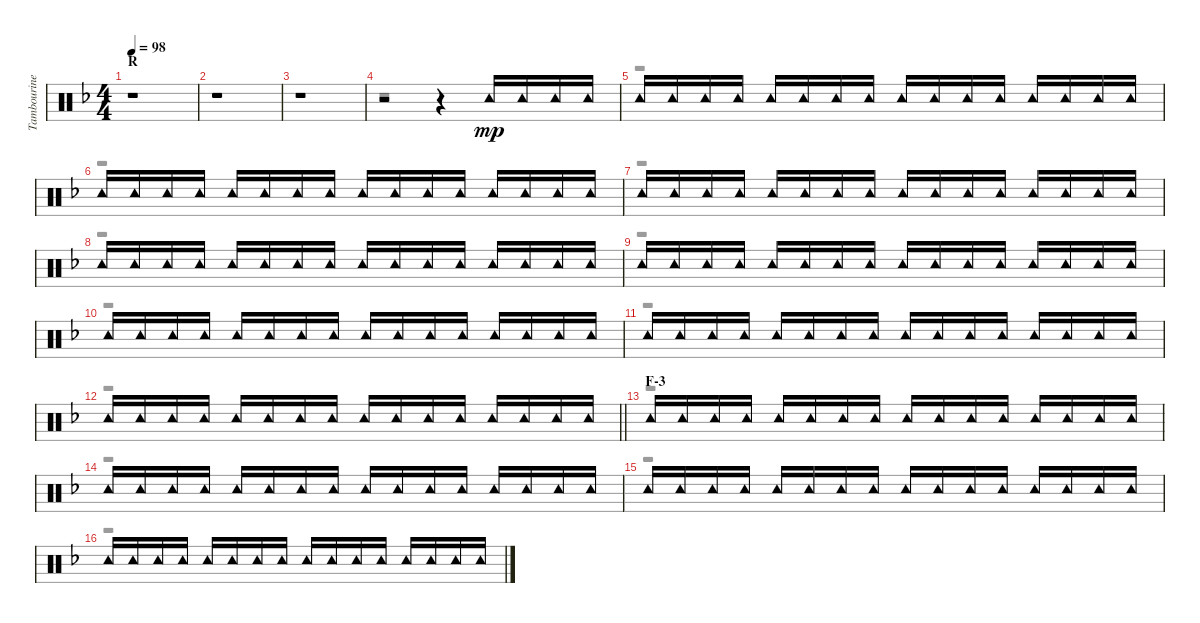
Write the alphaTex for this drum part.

\track ("Tambourine" "Tambourine") {instrument percussion}
\staff {score}
\articulation defaults
\voice
\ts (4 4)
\section ("" "R")
\tempo 98
\clef neutral
\ks f
r.1{dy mp} |
r.1 |
r.1 |
r.2 r.4 "Tambourine (hit)".16 "Tambourine (hit)".16 "Tambourine (hit)".16 "Tambourine (hit)".16 |
"Tambourine (hit)".16 "Tambourine (hit)".16 "Tambourine (hit)".16 "Tambourine (hit)".16 "Tambourine (hit)".16 "Tambourine (hit)".16 "Tambourine (hit)".16 "Tambourine (hit)".16 "Tambourine (hit)".16 "Tambourine (hit)".16 "Tambourine (hit)".16 "Tambourine (hit)".16 "Tambourine (hit)".16 "Tambourine (hit)".16 "Tambourine (hit)".16 "Tambourine (hit)".16 |
"Tambourine (hit)".16 "Tambourine (hit)".16 "Tambourine (hit)".16 "Tambourine (hit)".16 "Tambourine (hit)".16 "Tambourine (hit)".16 "Tambourine (hit)".16 "Tambourine (hit)".16 "Tambourine (hit)".16 "Tambourine (hit)".16 "Tambourine (hit)".16 "Tambourine (hit)".16 "Tambourine (hit)".16 "Tambourine (hit)".16 "Tambourine (hit)".16 "Tambourine (hit)".16 |
"Tambourine (hit)".16 "Tambourine (hit)".16 "Tambourine (hit)".16 "Tambourine (hit)".16 "Tambourine (hit)".16 "Tambourine (hit)".16 "Tambourine (hit)".16 "Tambourine (hit)".16 "Tambourine (hit)".16 "Tambourine (hit)".16 "Tambourine (hit)".16 "Tambourine (hit)".16 "Tambourine (hit)".16 "Tambourine (hit)".16 "Tambourine (hit)".16 "Tambourine (hit)".16 |
"Tambourine (hit)".16 "Tambourine (hit)".16 "Tambourine (hit)".16 "Tambourine (hit)".16 "Tambourine (hit)".16 "Tambourine (hit)".16 "Tambourine (hit)".16 "Tambourine (hit)".16 "Tambourine (hit)".16 "Tambourine (hit)".16 "Tambourine (hit)".16 "Tambourine (hit)".16 "Tambourine (hit)".16 "Tambourine (hit)".16 "Tambourine (hit)".16 "Tambourine (hit)".16 |
"Tambourine (hit)".16 "Tambourine (hit)".16 "Tambourine (hit)".16 "Tambourine (hit)".16 "Tambourine (hit)".16 "Tambourine (hit)".16 "Tambourine (hit)".16 "Tambourine (hit)".16 "Tambourine (hit)".16 "Tambourine (hit)".16 "Tambourine (hit)".16 "Tambourine (hit)".16 "Tambourine (hit)".16 "Tambourine (hit)".16 "Tambourine (hit)".16 "Tambourine (hit)".16 |
"Tambourine (hit)".16 "Tambourine (hit)".16 "Tambourine (hit)".16 "Tambourine (hit)".16 "Tambourine (hit)".16 "Tambourine (hit)".16 "Tambourine (hit)".16 "Tambourine (hit)".16 "Tambourine (hit)".16 "Tambourine (hit)".16 "Tambourine (hit)".16 "Tambourine (hit)".16 "Tambourine (hit)".16 "Tambourine (hit)".16 "Tambourine (hit)".16 "Tambourine (hit)".16 |
"Tambourine (hit)".16 "Tambourine (hit)".16 "Tambourine (hit)".16 "Tambourine (hit)".16 "Tambourine (hit)".16 "Tambourine (hit)".16 "Tambourine (hit)".16 "Tambourine (hit)".16 "Tambourine (hit)".16 "Tambourine (hit)".16 "Tambourine (hit)".16 "Tambourine (hit)".16 "Tambourine (hit)".16 "Tambourine (hit)".16 "Tambourine (hit)".16 "Tambourine (hit)".16 |
\barLineRight lightlight "Tambourine (hit)".16 "Tambourine (hit)".16 "Tambourine (hit)".16 "Tambourine (hit)".16 "Tambourine (hit)".16 "Tambourine (hit)".16 "Tambourine (hit)".16 "Tambourine (hit)".16 "Tambourine (hit)".16 "Tambourine (hit)".16 "Tambourine (hit)".16 "Tambourine (hit)".16 "Tambourine (hit)".16 "Tambourine (hit)".16 "Tambourine (hit)".16 "Tambourine (hit)".16
|
\section ("" "F-3")
"Tambourine (hit)".16 "Tambourine (hit)".16 "Tambourine (hit)".16 "Tambourine (hit)".16 "Tambourine (hit)".16 "Tambourine (hit)".16 "Tambourine (hit)".16 "Tambourine (hit)".16 "Tambourine (hit)".16 "Tambourine (hit)".16 "Tambourine (hit)".16 "Tambourine (hit)".16 "Tambourine (hit)".16 "Tambourine (hit)".16 "Tambourine (hit)".16 "Tambourine (hit)".16 |
"Tambourine (hit)".16 "Tambourine (hit)".16 "Tambourine (hit)".16 "Tambourine (hit)".16 "Tambourine (hit)".16 "Tambourine (hit)".16 "Tambourine (hit)".16 "Tambourine (hit)".16 "Tambourine (hit)".16 "Tambourine (hit)".16 "Tambourine (hit)".16 "Tambourine (hit)".16 "Tambourine (hit)".16 "Tambourine (hit)".16 "Tambourine (hit)".16 "Tambourine (hit)".16 |
"Tambourine (hit)".16 "Tambourine (hit)".16 "Tambourine (hit)".16 "Tambourine (hit)".16 "Tambourine (hit)".16 "Tambourine (hit)".16 "Tambourine (hit)".16 "Tambourine (hit)".16 "Tambourine (hit)".16 "Tambourine (hit)".16 "Tambourine (hit)".16 "Tambourine (hit)".16 "Tambourine (hit)".16 "Tambourine (hit)".16 "Tambourine (hit)".16 "Tambourine (hit)".16 |
"Tambourine (hit)".16 "Tambourine (hit)".16 "Tambourine (hit)".16 "Tambourine (hit)".16 "Tambourine (hit)".16 "Tambourine (hit)".16 "Tambourine (hit)".16 "Tambourine (hit)".16 "Tambourine (hit)".16 "Tambourine (hit)".16 "Tambourine (hit)".16 "Tambourine (hit)".16 "Tambourine (hit)".16 "Tambourine (hit)".16 "Tambourine (hit)".16 "Tambourine (hit)".16
\voice
\clef neutral
\ottava regular
\simile none
\ks f
r.1{dy f} |
r.1 |
r.1 |
r.1 |
r.1 |
r.1 |
r.1 |
r.1 |
r.1 |
r.1 |
r.1 |
\barLineRight lightlight
r.1 |
r.1 |
r.1 |
r.1 |
r.1
